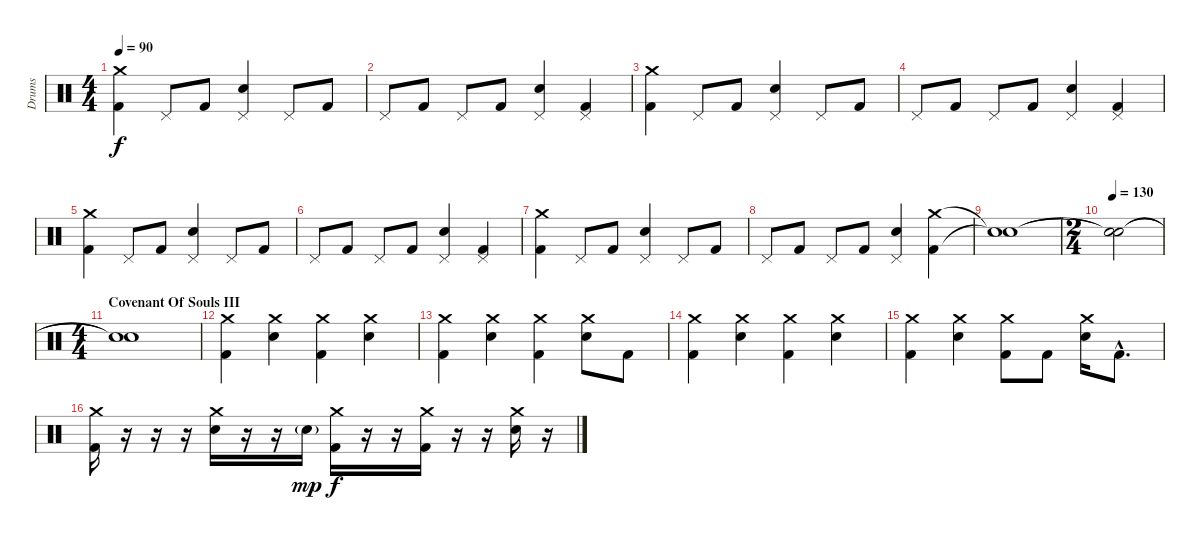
\track ("Drums" "Drums") {instrument percussion}
\staff {score}
\articulation defaults
\ts (4 4)
\section ("" "")
\tempo 90
\clef neutral
\ks c
("Crash medium (hit)" "Kick (hit) 2").4{dy f} "Pedal Hi-Hat (hit)".8 "Kick (hit) 2".8 ("Pedal Hi-Hat (hit)" "Electric Snare (hit)").4 "Pedal Hi-Hat (hit)".8 "Kick (hit) 2".8 |
"Pedal Hi-Hat (hit)".8 "Kick (hit) 2".8 "Pedal Hi-Hat (hit)".8 "Kick (hit) 2".8 ("Pedal Hi-Hat (hit)" "Electric Snare (hit)").4 ("Pedal Hi-Hat (hit)" "Kick (hit) 2").4 |
("Crash medium (hit)" "Kick (hit) 2").4 "Pedal Hi-Hat (hit)".8 "Kick (hit) 2".8 ("Pedal Hi-Hat (hit)" "Electric Snare (hit)").4 "Pedal Hi-Hat (hit)".8 "Kick (hit) 2".8 |
"Pedal Hi-Hat (hit)".8 "Kick (hit) 2".8 "Pedal Hi-Hat (hit)".8 "Kick (hit) 2".8 ("Pedal Hi-Hat (hit)" "Electric Snare (hit)").4 ("Pedal Hi-Hat (hit)" "Kick (hit) 2").4 |
("Crash medium (hit)" "Kick (hit) 2").4 "Pedal Hi-Hat (hit)".8 "Kick (hit) 2".8 ("Pedal Hi-Hat (hit)" "Electric Snare (hit)").4 "Pedal Hi-Hat (hit)".8 "Kick (hit) 2".8 |
"Pedal Hi-Hat (hit)".8 "Kick (hit) 2".8 "Pedal Hi-Hat (hit)".8 "Kick (hit) 2".8 ("Pedal Hi-Hat (hit)" "Electric Snare (hit)").4 ("Pedal Hi-Hat (hit)" "Kick (hit) 2").4 |
("Crash medium (hit)" "Kick (hit) 2").4 "Pedal Hi-Hat (hit)".8 "Kick (hit) 2".8 ("Pedal Hi-Hat (hit)" "Electric Snare (hit)").4 "Pedal Hi-Hat (hit)".8 "Kick (hit) 2".8 |
"Pedal Hi-Hat (hit)".8 "Kick (hit) 2".8 "Pedal Hi-Hat (hit)".8 "Kick (hit) 2".8 ("Pedal Hi-Hat (hit)" "Electric Snare (hit)").4 ("Crash medium (hit)" "Kick (hit) 2").4 |
("Snare (hit)"{t} "Snare (hit)"{t}).1 |
\ts (2 4)
\tempo 130
("Snare (hit)"{t} "Snare (hit)"{t}).2 |
\ts (4 4)
\section ("" "Covenant Of Souls III")
("Snare (hit)"{t} "Snare (hit)"{t}).1 |
("Crash medium (hit)" "Kick (hit) 2").4 ("Crash medium (hit)" "Electric Snare (hit)").4 ("Crash medium (hit)" "Kick (hit) 2").4 ("Crash medium (hit)" "Electric Snare (hit)").4 |
("Crash medium (hit)" "Kick (hit) 2").4 ("Crash medium (hit)" "Electric Snare (hit)").4 ("Crash medium (hit)" "Kick (hit) 2").4 ("Crash medium (hit)" "Electric Snare (hit)").8 "Kick (hit) 2".8 |
("Crash medium (hit)" "Kick (hit) 2").4 ("Crash medium (hit)" "Electric Snare (hit)").4 ("Crash medium (hit)" "Kick (hit) 2").4 ("Crash medium (hit)" "Electric Snare (hit)").4 |
("Crash medium (hit)" "Kick (hit) 2").4 ("Crash medium (hit)" "Electric Snare (hit)").4 ("Crash medium (hit)" "Kick (hit) 2").8 "Kick (hit) 2".8 ("Crash medium (hit)" "Electric Snare (hit)").16 "Kick (hit) 2"{hac}.8{d} |
("Crash medium (hit)" "Kick (hit) 2").16 r.16 r.16 r.16 ("Crash medium (hit)" "Electric Snare (hit)").16 r.16 r.16 "Electric Snare (hit)"{g}.16{dy mp} ("Crash medium (hit)" "Kick (hit) 2").16{dy f} r.16 r.16 ("Crash medium (hit)" "Kick (hit) 2").16 r.16 r.16 ("Crash medium (hit)" "Electric Snare (hit)").16 r.16
